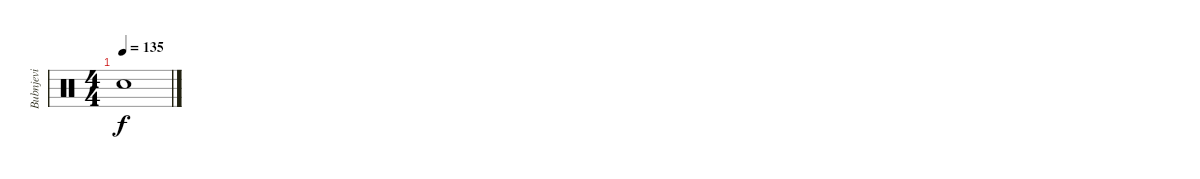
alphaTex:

\track ("Bubnjevi" "Bubnjevi") {instrument percussion}
\staff {score}
\articulation defaults
\ts (4 4)
\tempo 135
\clef neutral
\ks c "Snare (hit)"{t}.1{dy f}
